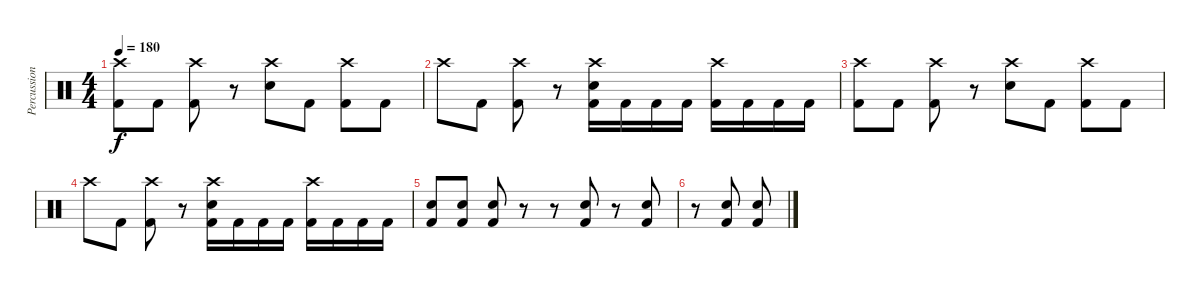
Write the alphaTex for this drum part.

\track ("Percussion" "Percussion") {instrument percussion}
\staff {score}
\articulation defaults
\ts (4 4)
\tempo 180
\clef neutral
\ks c
("Crash high (hit)" "Kick (hit) 2").8{dy f} "Kick (hit) 2".8 ("Crash high (hit)" "Kick (hit) 2").8 r.8 ("Crash high (hit)" "Electric Snare (hit)").8 "Kick (hit) 2".8 ("Crash high (hit)" "Kick (hit) 2").8 "Kick (hit) 2".8 |
"Crash high (hit)".8 "Kick (hit) 2".8 ("Crash high (hit)" "Kick (hit) 2").8 r.8 ("Crash high (hit)" "Electric Snare (hit)" "Kick (hit) 2").16 "Kick (hit) 2".16 "Kick (hit) 2".16 "Kick (hit) 2".16 ("Crash high (hit)" "Kick (hit) 2").16 "Kick (hit) 2".16 "Kick (hit) 2".16 "Kick (hit) 2".16 |
("Crash high (hit)" "Kick (hit) 2").8 "Kick (hit) 2".8 ("Crash high (hit)" "Kick (hit) 2").8 r.8 ("Crash high (hit)" "Electric Snare (hit)").8 "Kick (hit) 2".8 ("Crash high (hit)" "Kick (hit) 2").8 "Kick (hit) 2".8 |
"Crash high (hit)".8 "Kick (hit) 2".8 ("Crash high (hit)" "Kick (hit) 2").8 r.8 ("Crash high (hit)" "Electric Snare (hit)" "Kick (hit) 2").16 "Kick (hit) 2".16 "Kick (hit) 2".16 "Kick (hit) 2".16 ("Crash high (hit)" "Kick (hit) 2").16 "Kick (hit) 2".16 "Kick (hit) 2".16 "Kick (hit) 2".16 |
("Electric Snare (hit)" "Kick (hit) 2").8 ("Electric Snare (hit)" "Kick (hit) 2").8 ("Electric Snare (hit)" "Kick (hit) 2").8 r.8 r.8 ("Electric Snare (hit)" "Kick (hit) 2").8 r.8 ("Electric Snare (hit)" "Kick (hit) 2").8 |
r.8 ("Electric Snare (hit)" "Kick (hit) 2").8 ("Electric Snare (hit)" "Kick (hit) 2").8
